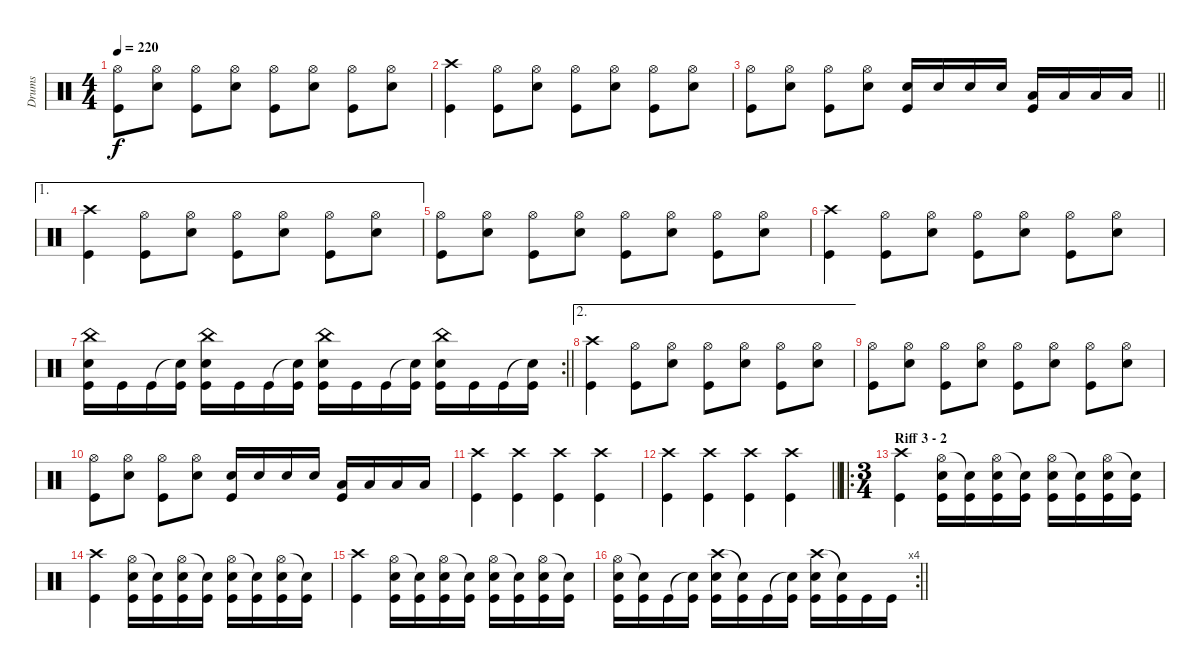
\track ("Drums" "Drums") {instrument percussion}
\staff {score}
\articulation defaults
\ts (4 4)
\tempo 220
\clef neutral
\ks c
("Hi-Hat (open)" "Kick (hit)").8{dy f} ("Hi-Hat (open)" "Electric Snare (hit)").8 ("Hi-Hat (open)" "Kick (hit)").8 ("Hi-Hat (open)" "Electric Snare (hit)").8 ("Hi-Hat (open)" "Kick (hit)").8 ("Hi-Hat (open)" "Electric Snare (hit)").8 ("Hi-Hat (open)" "Kick (hit)").8 ("Hi-Hat (open)" "Electric Snare (hit)").8 |
("Crash high (hit)" "Kick (hit)").4 ("Hi-Hat (open)" "Kick (hit)").8 ("Hi-Hat (open)" "Electric Snare (hit)").8 ("Hi-Hat (open)" "Kick (hit)").8 ("Hi-Hat (open)" "Electric Snare (hit)").8 ("Hi-Hat (open)" "Kick (hit)").8 ("Hi-Hat (open)" "Electric Snare (hit)").8 |
\barLineRight lightlight
("Hi-Hat (open)" "Kick (hit)").8 ("Hi-Hat (open)" "Electric Snare (hit)").8 ("Hi-Hat (open)" "Kick (hit)").8 ("Hi-Hat (open)" "Electric Snare (hit)").8 ("Electric Snare (hit)" "Kick (hit)").16 "Electric Snare (hit)".16 "Electric Snare (hit)".16 "Electric Snare (hit)".16 ("Low Tom (hit)" "Kick (hit)").16 "Low Tom (hit)".16 "Low Tom (hit)".16 "Low Tom (hit)".16 |
\ae 1
("Crash high (hit)" "Kick (hit)").4 ("Hi-Hat (open)" "Kick (hit)").8 ("Hi-Hat (open)" "Electric Snare (hit)").8 ("Hi-Hat (open)" "Kick (hit)").8 ("Hi-Hat (open)" "Electric Snare (hit)").8 ("Hi-Hat (open)" "Kick (hit)").8 ("Hi-Hat (open)" "Electric Snare (hit)").8 |
("Hi-Hat (open)" "Kick (hit)").8 ("Hi-Hat (open)" "Electric Snare (hit)").8 ("Hi-Hat (open)" "Kick (hit)").8 ("Hi-Hat (open)" "Electric Snare (hit)").8 ("Hi-Hat (open)" "Kick (hit)").8 ("Hi-Hat (open)" "Electric Snare (hit)").8 ("Hi-Hat (open)" "Kick (hit)").8 ("Hi-Hat (open)" "Electric Snare (hit)").8 |
("Crash high (hit)" "Kick (hit)").4 ("Hi-Hat (open)" "Kick (hit)").8 ("Hi-Hat (open)" "Electric Snare (hit)").8 ("Hi-Hat (open)" "Kick (hit)").8 ("Hi-Hat (open)" "Electric Snare (hit)").8 ("Hi-Hat (open)" "Kick (hit)").8 ("Hi-Hat (open)" "Electric Snare (hit)").8 |
\rc 2
\barLineRight lightlight
("China (hit)" "Electric Snare (hit)" "Kick (hit)").16 "Kick (hit)".16 "Kick (hit)".16 ("Snare (hit)"{t} "Kick (hit)").16 ("China (hit)" "Electric Snare (hit)" "Kick (hit)").16 "Kick (hit)".16 "Kick (hit)".16 ("Snare (hit)"{t} "Kick (hit)").16 ("China (hit)" "Electric Snare (hit)" "Kick (hit)").16 "Kick (hit)".16 "Kick (hit)".16 ("Snare (hit)"{t} "Kick (hit)").16 ("China (hit)" "Electric Snare (hit)" "Kick (hit)").16 "Kick (hit)".16 "Kick (hit)".16 ("Snare (hit)"{t} "Kick (hit)").16 |
\ae 2
("Crash high (hit)" "Kick (hit)").4 ("Hi-Hat (open)" "Kick (hit)").8 ("Hi-Hat (open)" "Electric Snare (hit)").8 ("Hi-Hat (open)" "Kick (hit)").8 ("Hi-Hat (open)" "Electric Snare (hit)").8 ("Hi-Hat (open)" "Kick (hit)").8 ("Hi-Hat (open)" "Electric Snare (hit)").8 |
("Hi-Hat (open)" "Kick (hit)").8 ("Hi-Hat (open)" "Electric Snare (hit)").8 ("Hi-Hat (open)" "Kick (hit)").8 ("Hi-Hat (open)" "Electric Snare (hit)").8 ("Hi-Hat (open)" "Kick (hit)").8 ("Hi-Hat (open)" "Electric Snare (hit)").8 ("Hi-Hat (open)" "Kick (hit)").8 ("Hi-Hat (open)" "Electric Snare (hit)").8 |
("Hi-Hat (open)" "Kick (hit)").8 ("Hi-Hat (open)" "Electric Snare (hit)").8 ("Hi-Hat (open)" "Kick (hit)").8 ("Hi-Hat (open)" "Electric Snare (hit)").8 ("Electric Snare (hit)" "Kick (hit)").16 "Electric Snare (hit)".16 "Electric Snare (hit)".16 "Electric Snare (hit)".16 ("Low Tom (hit)" "Kick (hit)").16 "Low Tom (hit)".16 "Low Tom (hit)".16 "Low Tom (hit)".16 |
("Crash high (hit)" "Kick (hit)").4 ("Crash high (hit)" "Kick (hit)").4 ("Crash high (hit)" "Kick (hit)").4 ("Crash high (hit)" "Kick (hit)").4 |
\barLineRight lightlight
("Crash high (hit)" "Kick (hit)").4 ("Crash high (hit)" "Kick (hit)").4 ("Crash high (hit)" "Kick (hit)").4 ("Crash high (hit)" "Kick (hit)").4 |
\ro
\ts (3 4)
\section ("" "Riff 3 - 2")
("Crash high (hit)" "Kick (hit)").4 ("Hi-Hat (open)" "Electric Snare (hit)" "Kick (hit)").16 ("Snare (hit)"{t} "Kick (hit)").16 ("Hi-Hat (open)" "Electric Snare (hit)" "Kick (hit)").16 ("Snare (hit)"{t} "Kick (hit)").16 ("Hi-Hat (open)" "Electric Snare (hit)" "Kick (hit)").16 ("Snare (hit)"{t} "Kick (hit)").16 ("Hi-Hat (open)" "Electric Snare (hit)" "Kick (hit)").16 ("Snare (hit)"{t} "Kick (hit)").16 |
("Crash high (hit)" "Kick (hit)").4 ("Hi-Hat (open)" "Electric Snare (hit)" "Kick (hit)").16 ("Snare (hit)"{t} "Kick (hit)").16 ("Hi-Hat (open)" "Electric Snare (hit)" "Kick (hit)").16 ("Snare (hit)"{t} "Kick (hit)").16 ("Hi-Hat (open)" "Electric Snare (hit)" "Kick (hit)").16 ("Snare (hit)"{t} "Kick (hit)").16 ("Hi-Hat (open)" "Electric Snare (hit)" "Kick (hit)").16 ("Snare (hit)"{t} "Kick (hit)").16 |
("Crash high (hit)" "Kick (hit)").4 ("Hi-Hat (open)" "Electric Snare (hit)" "Kick (hit)").16 ("Snare (hit)"{t} "Kick (hit)").16 ("Hi-Hat (open)" "Electric Snare (hit)" "Kick (hit)").16 ("Snare (hit)"{t} "Kick (hit)").16 ("Hi-Hat (open)" "Electric Snare (hit)" "Kick (hit)").16 ("Snare (hit)"{t} "Kick (hit)").16 ("Hi-Hat (open)" "Electric Snare (hit)" "Kick (hit)").16 ("Snare (hit)"{t} "Kick (hit)").16 |
\rc 4
\barLineRight lightlight
("Hi-Hat (open)" "Electric Snare (hit)" "Kick (hit)").16 ("Snare (hit)"{t} "Kick (hit)").16 "Kick (hit)".16 ("Snare (hit)"{t} "Kick (hit)").16 ("Crash high (hit)" "Electric Snare (hit)" "Kick (hit)").16 ("Snare (hit)"{t} "Kick (hit)").16 "Kick (hit)".16 ("Snare (hit)"{t} "Kick (hit)").16 ("Crash high (hit)" "Electric Snare (hit)" "Kick (hit)").16 ("Snare (hit)"{t} "Kick (hit)").16 "Kick (hit)".16 "Kick (hit)".16
